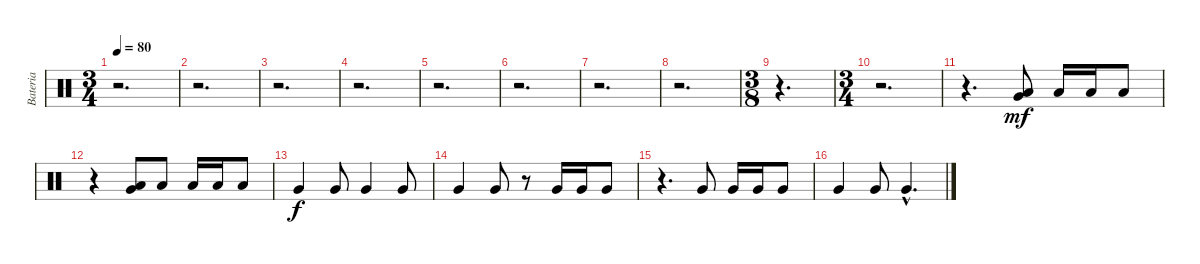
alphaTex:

\track ("Bateria" "Bateria") {instrument percussion}
\staff {score}
\articulation defaults
\ts (3 4)
\tempo 80
\clef neutral
\ks c
r.2{d dy mf} |
r.2{d} |
r.2{d} |
r.2{d} |
r.2{d} |
r.2{d} |
r.2{d} |
r.2{d} |
\ts (3 8)
r.4{d} |
\ts (3 4)
r.2{d} |
r.4{d} ("Low Tom (hit)" "Very Low Tom (hit)").8 "Low Tom (hit)".16 "Low Tom (hit)".16 "Low Tom (hit)".8 |
r.4 ("Low Tom (hit)" "Very Low Tom (hit)").8 "Low Tom (hit)".8 "Low Tom (hit)".16 "Low Tom (hit)".16 "Low Tom (hit)".8 |
"Very Low Tom (hit)".4{dy f} "Very Low Tom (hit)".8 "Very Low Tom (hit)".4 "Very Low Tom (hit)".8 |
"Very Low Tom (hit)".4 "Very Low Tom (hit)".8 r.8 "Very Low Tom (hit)".16 "Very Low Tom (hit)".16 "Very Low Tom (hit)".8 |
r.4{d} "Very Low Tom (hit)".8 "Very Low Tom (hit)".16 "Very Low Tom (hit)".16 "Very Low Tom (hit)".8 |
"Very Low Tom (hit)".4 "Very Low Tom (hit)".8 "Very Low Tom (hit)"{hac}.4{d}
